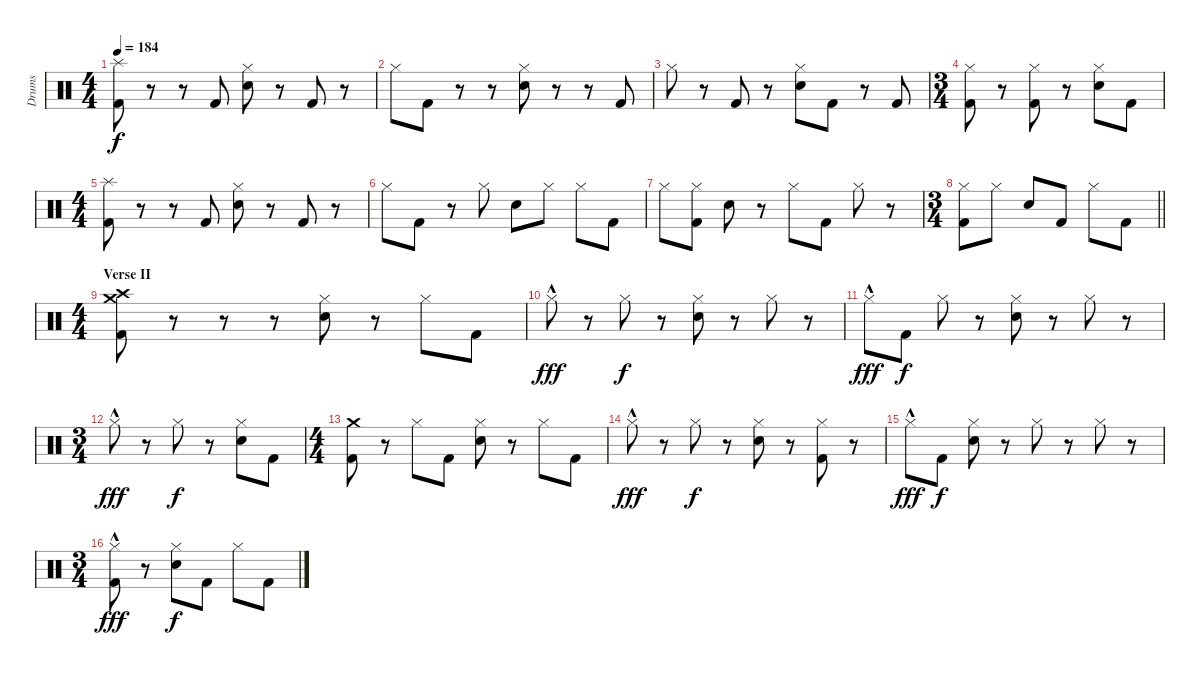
\track ("Drums" "Drums") {instrument percussion}
\staff {score}
\articulation defaults
\ts (4 4)
\tempo 184
\clef neutral
\ks c
("Splash (hit)" "Kick (hit) 2").8{dy f volume 4} r.8 r.8 "Kick (hit) 2".8 ("Hi-Hat (closed)" "Snare (hit) 2").8 r.8 "Kick (hit) 2".8 r.8 |
"Hi-Hat (closed)".8 "Kick (hit) 2".8 r.8 r.8 ("Hi-Hat (closed)" "Snare (hit) 2").8 r.8 r.8 "Kick (hit) 2".8 |
"Hi-Hat (closed)".8 r.8 "Kick (hit) 2".8 r.8 ("Hi-Hat (closed)" "Snare (hit) 2").8 "Kick (hit) 2".8 r.8 "Kick (hit) 2".8 |
\ts (3 4)
("Hi-Hat (closed)" "Kick (hit) 2").8 r.8 ("Hi-Hat (closed)" "Kick (hit) 2").8 r.8 ("Hi-Hat (closed)" "Snare (hit) 2").8 "Kick (hit) 2".8 |
\ts (4 4)
("Splash (hit)" "Kick (hit) 2").8 r.8 r.8 "Kick (hit) 2".8 ("Hi-Hat (closed)" "Snare (hit) 2").8 r.8 "Kick (hit) 2".8 r.8 |
"Hi-Hat (closed)".8 "Kick (hit) 2".8 r.8 "Hi-Hat (closed)".8 "Snare (hit) 2".8 "Hi-Hat (closed)".8 "Hi-Hat (closed)".8 "Kick (hit) 2".8 |
"Hi-Hat (closed)".8 ("Hi-Hat (closed)" "Kick (hit) 2").8 "Snare (hit) 2".8 r.8 "Hi-Hat (closed)".8 "Kick (hit) 2".8 "Hi-Hat (closed)".8 r.8 |
\ts (3 4)
\barLineRight lightlight
("Hi-Hat (closed)" "Kick (hit) 2").8 "Hi-Hat (closed)".8 "Snare (hit) 2".8 "Kick (hit) 2".8 "Hi-Hat (closed)".8 "Kick (hit) 2".8 |
\ts (4 4)
\section ("" "Verse II")
("Crash medium (hit)" "Crash high (hit)" "Kick (hit) 2").8 r.8 r.8 r.8 ("Hi-Hat (closed)" "Snare (hit) 2").8 r.8 "Hi-Hat (closed)".8 "Kick (hit) 2".8 |
"Hi-Hat (closed)"{hac}.8{dy fff} r.8 "Hi-Hat (closed)".8{dy f} r.8 ("Hi-Hat (closed)" "Snare (hit) 2").8 r.8 "Hi-Hat (closed)".8 r.8 |
"Hi-Hat (closed)"{hac}.8{dy fff} "Kick (hit) 2".8{dy f} "Hi-Hat (closed)".8 r.8 ("Hi-Hat (closed)" "Snare (hit) 2").8 r.8 "Hi-Hat (closed)".8 r.8 |
\ts (3 4)
"Hi-Hat (closed)"{hac}.8{dy fff} r.8 "Hi-Hat (closed)".8{dy f} r.8 ("Hi-Hat (closed)" "Snare (hit) 2").8 "Kick (hit) 2".8 |
\ts (4 4)
("Crash medium (hit)" "Kick (hit) 2").8 r.8 "Hi-Hat (closed)".8 "Kick (hit) 2".8 ("Hi-Hat (closed)" "Snare (hit) 2").8 r.8 "Hi-Hat (closed)".8 "Kick (hit) 2".8 |
"Hi-Hat (closed)"{hac}.8{dy fff} r.8 "Hi-Hat (closed)".8{dy f} r.8 ("Hi-Hat (closed)" "Snare (hit) 2").8 r.8 ("Hi-Hat (closed)" "Kick (hit) 2").8 r.8 |
"Hi-Hat (closed)"{hac}.8{dy fff} "Kick (hit) 2".8{dy f} ("Hi-Hat (closed)" "Snare (hit) 2").8 r.8 "Hi-Hat (closed)".8 r.8 "Hi-Hat (closed)".8 r.8 |
\ts (3 4)
("Hi-Hat (closed)"{hac} "Kick (hit) 2").8{dy fff} r.8 ("Hi-Hat (closed)" "Snare (hit) 2").8{dy f} "Kick (hit) 2".8 "Hi-Hat (closed)".8 "Kick (hit) 2".8
